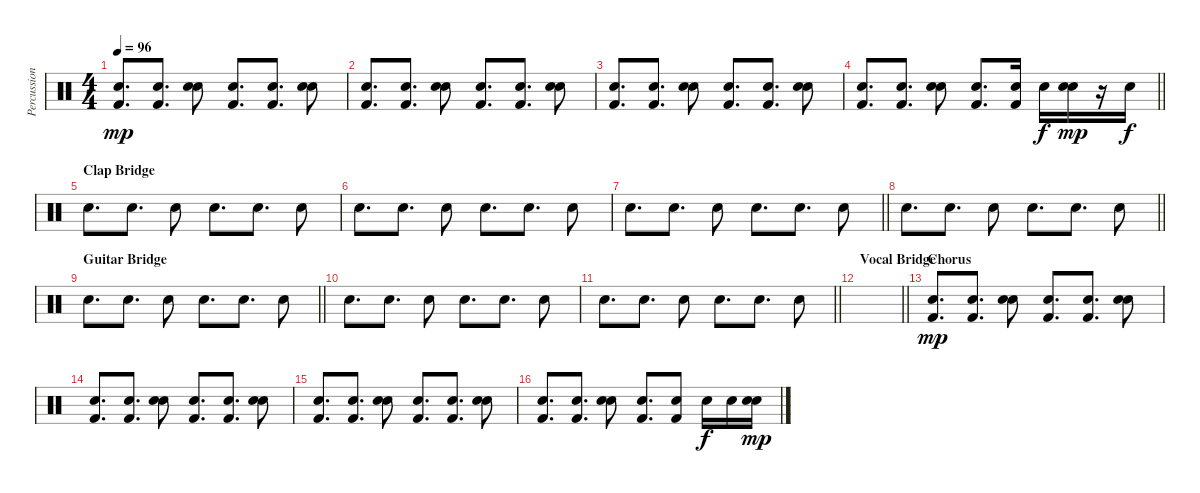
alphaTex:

\track ("Percussion" "Percussion") {instrument percussion bank 2}
\staff {score}
\articulation defaults
\ts (4 4)
\tempo 96
\clef neutral
\ks c
("Hand Clap (hit)" "Kick (hit) 2").8{d dy mp} ("Hand Clap (hit)" "Kick (hit) 2").8{d} ("Hand Clap (hit)" "Snare (hit) 2").8 ("Hand Clap (hit)" "Kick (hit) 2").8{d} ("Hand Clap (hit)" "Kick (hit) 2").8{d} ("Hand Clap (hit)" "Snare (hit) 2").8 |
("Hand Clap (hit)" "Kick (hit) 2").8{d} ("Hand Clap (hit)" "Kick (hit) 2").8{d} ("Hand Clap (hit)" "Snare (hit) 2").8 ("Hand Clap (hit)" "Kick (hit) 2").8{d} ("Hand Clap (hit)" "Kick (hit) 2").8{d} ("Hand Clap (hit)" "Snare (hit) 2").8 |
("Hand Clap (hit)" "Kick (hit) 2").8{d} ("Hand Clap (hit)" "Kick (hit) 2").8{d} ("Hand Clap (hit)" "Snare (hit) 2").8 ("Hand Clap (hit)" "Kick (hit) 2").8{d} ("Hand Clap (hit)" "Kick (hit) 2").8{d} ("Hand Clap (hit)" "Snare (hit) 2").8 |
\barLineRight lightlight
("Hand Clap (hit)" "Kick (hit) 2").8{d} ("Hand Clap (hit)" "Kick (hit) 2").8{d} ("Hand Clap (hit)" "Snare (hit) 2").8 ("Hand Clap (hit)" "Kick (hit) 2").8{d} ("Hand Clap (hit)" "Kick (hit) 2").16 "Snare (hit) 2".16{dy f} ("Hand Clap (hit)" "Snare (hit) 2").16{dy mp} r.16 "Snare (hit) 2".16{dy f} |
\section ("" "Clap Bridge")
"Hand Clap (hit)".8{d} "Hand Clap (hit)".8{d} "Hand Clap (hit)".8 "Hand Clap (hit)".8{d} "Hand Clap (hit)".8{d} "Hand Clap (hit)".8 |
"Hand Clap (hit)".8{d} "Hand Clap (hit)".8{d} "Hand Clap (hit)".8 "Hand Clap (hit)".8{d} "Hand Clap (hit)".8{d} "Hand Clap (hit)".8 |
\barLineRight lightlight "Hand Clap (hit)".8{d} "Hand Clap (hit)".8{d} "Hand Clap (hit)".8 "Hand Clap (hit)".8{d} "Hand Clap (hit)".8{d} "Hand Clap (hit)".8
|
\barLineRight lightlight "Hand Clap (hit)".8{d} "Hand Clap (hit)".8{d} "Hand Clap (hit)".8 "Hand Clap (hit)".8{d} "Hand Clap (hit)".8{d} "Hand Clap (hit)".8
|
\section ("" "Guitar Bridge")
\barLineRight lightlight "Hand Clap (hit)".8{d} "Hand Clap (hit)".8{d} "Hand Clap (hit)".8 "Hand Clap (hit)".8{d} "Hand Clap (hit)".8{d} "Hand Clap (hit)".8
|
"Hand Clap (hit)".8{d} "Hand Clap (hit)".8{d} "Hand Clap (hit)".8 "Hand Clap (hit)".8{d} "Hand Clap (hit)".8{d} "Hand Clap (hit)".8 |
\barLineRight lightlight "Hand Clap (hit)".8{d} "Hand Clap (hit)".8{d} "Hand Clap (hit)".8 "Hand Clap (hit)".8{d} "Hand Clap (hit)".8{d} "Hand Clap (hit)".8
|
\section ("" "Vocal Bridge")
\barLineRight lightlight
|
\section ("" "Chorus ")
("Hand Clap (hit)" "Kick (hit) 2").8{d dy mp} ("Hand Clap (hit)" "Kick (hit) 2").8{d} ("Hand Clap (hit)" "Snare (hit) 2").8 ("Hand Clap (hit)" "Kick (hit) 2").8{d} ("Hand Clap (hit)" "Kick (hit) 2").8{d} ("Hand Clap (hit)" "Snare (hit) 2").8 |
("Hand Clap (hit)" "Kick (hit) 2").8{d} ("Hand Clap (hit)" "Kick (hit) 2").8{d} ("Hand Clap (hit)" "Snare (hit) 2").8 ("Hand Clap (hit)" "Kick (hit) 2").8{d} ("Hand Clap (hit)" "Kick (hit) 2").8{d} ("Hand Clap (hit)" "Snare (hit) 2").8 |
("Hand Clap (hit)" "Kick (hit) 2").8{d} ("Hand Clap (hit)" "Kick (hit) 2").8{d} ("Hand Clap (hit)" "Snare (hit) 2").8 ("Hand Clap (hit)" "Kick (hit) 2").8{d} ("Hand Clap (hit)" "Kick (hit) 2").8{d} ("Hand Clap (hit)" "Snare (hit) 2").8 |
("Hand Clap (hit)" "Kick (hit) 2").8{d} ("Hand Clap (hit)" "Kick (hit) 2").8{d} ("Hand Clap (hit)" "Snare (hit) 2").8 ("Hand Clap (hit)" "Kick (hit) 2").8{d} ("Hand Clap (hit)" "Kick (hit) 2").8 "Snare (hit) 2".16{dy f} "Snare (hit) 2".16 ("Hand Clap (hit)" "Snare (hit) 2").16{dy mp}
